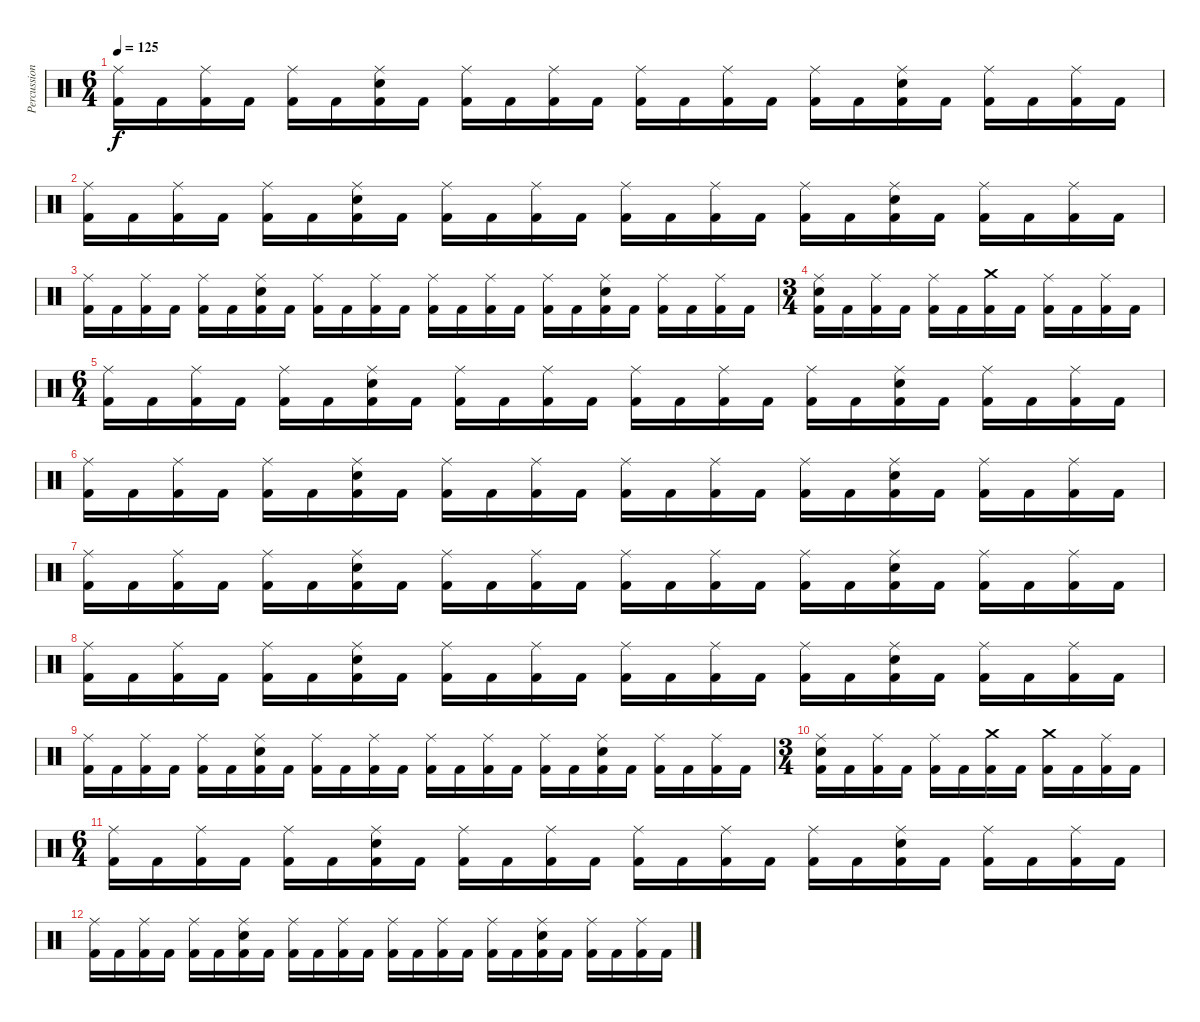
\track ("Percussion" "Percussion") {instrument percussion}
\staff {score}
\articulation defaults
\ts (6 4)
\tempo 125
\clef neutral
\ks c
("Ride (middle)" "Kick (hit) 2").16{dy f} "Kick (hit) 2".16 ("Ride (middle)" "Kick (hit) 2").16 "Kick (hit) 2".16 ("Ride (middle)" "Kick (hit) 2").16 "Kick (hit) 2".16 ("Ride (middle)" "Electric Snare (hit)" "Kick (hit) 2").16 "Kick (hit) 2".16 ("Ride (middle)" "Kick (hit) 2").16 "Kick (hit) 2".16 ("Ride (middle)" "Kick (hit) 2").16 "Kick (hit) 2".16 ("Ride (middle)" "Kick (hit) 2").16 "Kick (hit) 2".16 ("Ride (middle)" "Kick (hit) 2").16 "Kick (hit) 2".16 ("Ride (middle)" "Kick (hit) 2").16 "Kick (hit) 2".16 ("Ride (middle)" "Electric Snare (hit)" "Kick (hit) 2").16 "Kick (hit) 2".16 ("Ride (middle)" "Kick (hit) 2").16 "Kick (hit) 2".16 ("Ride (middle)" "Kick (hit) 2").16 "Kick (hit) 2".16 |
("Ride (middle)" "Kick (hit) 2").16 "Kick (hit) 2".16 ("Ride (middle)" "Kick (hit) 2").16 "Kick (hit) 2".16 ("Ride (middle)" "Kick (hit) 2").16 "Kick (hit) 2".16 ("Ride (middle)" "Electric Snare (hit)" "Kick (hit) 2").16 "Kick (hit) 2".16 ("Ride (middle)" "Kick (hit) 2").16 "Kick (hit) 2".16 ("Ride (middle)" "Kick (hit) 2").16 "Kick (hit) 2".16 ("Ride (middle)" "Kick (hit) 2").16 "Kick (hit) 2".16 ("Ride (middle)" "Kick (hit) 2").16 "Kick (hit) 2".16 ("Ride (middle)" "Kick (hit) 2").16 "Kick (hit) 2".16 ("Ride (middle)" "Electric Snare (hit)" "Kick (hit) 2").16 "Kick (hit) 2".16 ("Ride (middle)" "Kick (hit) 2").16 "Kick (hit) 2".16 ("Ride (middle)" "Kick (hit) 2").16 "Kick (hit) 2".16 |
("Ride (middle)" "Kick (hit) 2").16 "Kick (hit) 2".16 ("Ride (middle)" "Kick (hit) 2").16 "Kick (hit) 2".16 ("Ride (middle)" "Kick (hit) 2").16 "Kick (hit) 2".16 ("Ride (middle)" "Electric Snare (hit)" "Kick (hit) 2").16 "Kick (hit) 2".16 ("Ride (middle)" "Kick (hit) 2").16 "Kick (hit) 2".16 ("Ride (middle)" "Kick (hit) 2").16 "Kick (hit) 2".16 ("Ride (middle)" "Kick (hit) 2").16 "Kick (hit) 2".16 ("Ride (middle)" "Kick (hit) 2").16 "Kick (hit) 2".16 ("Ride (middle)" "Kick (hit) 2").16 "Kick (hit) 2".16 ("Ride (middle)" "Electric Snare (hit)" "Kick (hit) 2").16 "Kick (hit) 2".16 ("Ride (middle)" "Kick (hit) 2").16 "Kick (hit) 2".16 ("Ride (middle)" "Kick (hit) 2").16 "Kick (hit) 2".16 |
\ts (3 4)
("Ride (middle)" "Electric Snare (hit)" "Kick (hit) 2").16{volume 4} "Kick (hit) 2".16 ("Ride (middle)" "Kick (hit) 2").16 "Kick (hit) 2".16 ("Ride (middle)" "Kick (hit) 2").16 "Kick (hit) 2".16 ("Crash medium (hit)" "Kick (hit) 2").16 "Kick (hit) 2".16 ("Ride (middle)" "Kick (hit) 2").16 "Kick (hit) 2".16 ("Ride (middle)" "Kick (hit) 2").16 "Kick (hit) 2".16 |
\ts (6 4)
("Ride (middle)" "Kick (hit) 2").16 "Kick (hit) 2".16 ("Ride (middle)" "Kick (hit) 2").16 "Kick (hit) 2".16 ("Ride (middle)" "Kick (hit) 2").16 "Kick (hit) 2".16 ("Ride (middle)" "Electric Snare (hit)" "Kick (hit) 2").16 "Kick (hit) 2".16 ("Ride (middle)" "Kick (hit) 2").16 "Kick (hit) 2".16 ("Ride (middle)" "Kick (hit) 2").16 "Kick (hit) 2".16 ("Ride (middle)" "Kick (hit) 2").16 "Kick (hit) 2".16 ("Ride (middle)" "Kick (hit) 2").16 "Kick (hit) 2".16 ("Ride (middle)" "Kick (hit) 2").16 "Kick (hit) 2".16 ("Ride (middle)" "Electric Snare (hit)" "Kick (hit) 2").16 "Kick (hit) 2".16 ("Ride (middle)" "Kick (hit) 2").16 "Kick (hit) 2".16 ("Ride (middle)" "Kick (hit) 2").16 "Kick (hit) 2".16 |
("Ride (middle)" "Kick (hit) 2").16 "Kick (hit) 2".16 ("Ride (middle)" "Kick (hit) 2").16 "Kick (hit) 2".16 ("Ride (middle)" "Kick (hit) 2").16 "Kick (hit) 2".16 ("Ride (middle)" "Electric Snare (hit)" "Kick (hit) 2").16 "Kick (hit) 2".16 ("Ride (middle)" "Kick (hit) 2").16 "Kick (hit) 2".16 ("Ride (middle)" "Kick (hit) 2").16 "Kick (hit) 2".16 ("Ride (middle)" "Kick (hit) 2").16 "Kick (hit) 2".16 ("Ride (middle)" "Kick (hit) 2").16 "Kick (hit) 2".16 ("Ride (middle)" "Kick (hit) 2").16 "Kick (hit) 2".16 ("Ride (middle)" "Electric Snare (hit)" "Kick (hit) 2").16 "Kick (hit) 2".16 ("Ride (middle)" "Kick (hit) 2").16 "Kick (hit) 2".16 ("Ride (middle)" "Kick (hit) 2").16 "Kick (hit) 2".16 |
("Ride (middle)" "Kick (hit) 2").16{volume 2} "Kick (hit) 2".16 ("Ride (middle)" "Kick (hit) 2").16 "Kick (hit) 2".16 ("Ride (middle)" "Kick (hit) 2").16 "Kick (hit) 2".16 ("Ride (middle)" "Electric Snare (hit)" "Kick (hit) 2").16 "Kick (hit) 2".16 ("Ride (middle)" "Kick (hit) 2").16 "Kick (hit) 2".16 ("Ride (middle)" "Kick (hit) 2").16 "Kick (hit) 2".16 ("Ride (middle)" "Kick (hit) 2").16 "Kick (hit) 2".16 ("Ride (middle)" "Kick (hit) 2").16 "Kick (hit) 2".16 ("Ride (middle)" "Kick (hit) 2").16 "Kick (hit) 2".16 ("Ride (middle)" "Electric Snare (hit)" "Kick (hit) 2").16 "Kick (hit) 2".16 ("Ride (middle)" "Kick (hit) 2").16 "Kick (hit) 2".16 ("Ride (middle)" "Kick (hit) 2").16 "Kick (hit) 2".16 |
("Ride (middle)" "Kick (hit) 2").16 "Kick (hit) 2".16 ("Ride (middle)" "Kick (hit) 2").16 "Kick (hit) 2".16 ("Ride (middle)" "Kick (hit) 2").16 "Kick (hit) 2".16 ("Ride (middle)" "Electric Snare (hit)" "Kick (hit) 2").16 "Kick (hit) 2".16 ("Ride (middle)" "Kick (hit) 2").16 "Kick (hit) 2".16 ("Ride (middle)" "Kick (hit) 2").16 "Kick (hit) 2".16 ("Ride (middle)" "Kick (hit) 2").16 "Kick (hit) 2".16 ("Ride (middle)" "Kick (hit) 2").16 "Kick (hit) 2".16 ("Ride (middle)" "Kick (hit) 2").16 "Kick (hit) 2".16 ("Ride (middle)" "Electric Snare (hit)" "Kick (hit) 2").16 "Kick (hit) 2".16 ("Ride (middle)" "Kick (hit) 2").16 "Kick (hit) 2".16 ("Ride (middle)" "Kick (hit) 2").16 "Kick (hit) 2".16 |
("Ride (middle)" "Kick (hit) 2").16 "Kick (hit) 2".16 ("Ride (middle)" "Kick (hit) 2").16 "Kick (hit) 2".16 ("Ride (middle)" "Kick (hit) 2").16 "Kick (hit) 2".16 ("Ride (middle)" "Electric Snare (hit)" "Kick (hit) 2").16 "Kick (hit) 2".16 ("Ride (middle)" "Kick (hit) 2").16 "Kick (hit) 2".16 ("Ride (middle)" "Kick (hit) 2").16 "Kick (hit) 2".16 ("Ride (middle)" "Kick (hit) 2").16 "Kick (hit) 2".16 ("Ride (middle)" "Kick (hit) 2").16 "Kick (hit) 2".16 ("Ride (middle)" "Kick (hit) 2").16 "Kick (hit) 2".16 ("Ride (middle)" "Electric Snare (hit)" "Kick (hit) 2").16 "Kick (hit) 2".16 ("Ride (middle)" "Kick (hit) 2").16 "Kick (hit) 2".16 ("Ride (middle)" "Kick (hit) 2").16 "Kick (hit) 2".16 |
\ts (3 4)
("Ride (middle)" "Electric Snare (hit)" "Kick (hit) 2").16 "Kick (hit) 2".16 ("Ride (middle)" "Kick (hit) 2").16 "Kick (hit) 2".16 ("Ride (middle)" "Kick (hit) 2").16 "Kick (hit) 2".16 ("Crash medium (hit)" "Kick (hit) 2").16 "Kick (hit) 2".16 ("Crash medium (hit)" "Kick (hit) 2").16 "Kick (hit) 2".16 ("Ride (middle)" "Kick (hit) 2").16 "Kick (hit) 2".16 |
\ts (6 4)
("Ride (middle)" "Kick (hit) 2").16{volume 0} "Kick (hit) 2".16 ("Ride (middle)" "Kick (hit) 2").16 "Kick (hit) 2".16 ("Ride (middle)" "Kick (hit) 2").16 "Kick (hit) 2".16 ("Ride (middle)" "Electric Snare (hit)" "Kick (hit) 2").16 "Kick (hit) 2".16 ("Ride (middle)" "Kick (hit) 2").16 "Kick (hit) 2".16 ("Ride (middle)" "Kick (hit) 2").16 "Kick (hit) 2".16 ("Ride (middle)" "Kick (hit) 2").16 "Kick (hit) 2".16 ("Ride (middle)" "Kick (hit) 2").16 "Kick (hit) 2".16 ("Ride (middle)" "Kick (hit) 2").16 "Kick (hit) 2".16 ("Ride (middle)" "Electric Snare (hit)" "Kick (hit) 2").16 "Kick (hit) 2".16 ("Ride (middle)" "Kick (hit) 2").16 "Kick (hit) 2".16 ("Ride (middle)" "Kick (hit) 2").16 "Kick (hit) 2".16 |
("Ride (middle)" "Kick (hit) 2").16 "Kick (hit) 2".16 ("Ride (middle)" "Kick (hit) 2").16 "Kick (hit) 2".16 ("Ride (middle)" "Kick (hit) 2").16 "Kick (hit) 2".16 ("Ride (middle)" "Electric Snare (hit)" "Kick (hit) 2").16 "Kick (hit) 2".16 ("Ride (middle)" "Kick (hit) 2").16 "Kick (hit) 2".16 ("Ride (middle)" "Kick (hit) 2").16 "Kick (hit) 2".16 ("Ride (middle)" "Kick (hit) 2").16 "Kick (hit) 2".16 ("Ride (middle)" "Kick (hit) 2").16 "Kick (hit) 2".16 ("Ride (middle)" "Kick (hit) 2").16 "Kick (hit) 2".16 ("Ride (middle)" "Electric Snare (hit)" "Kick (hit) 2").16 "Kick (hit) 2".16 ("Ride (middle)" "Kick (hit) 2").16 "Kick (hit) 2".16 ("Ride (middle)" "Kick (hit) 2").16 "Kick (hit) 2".16
